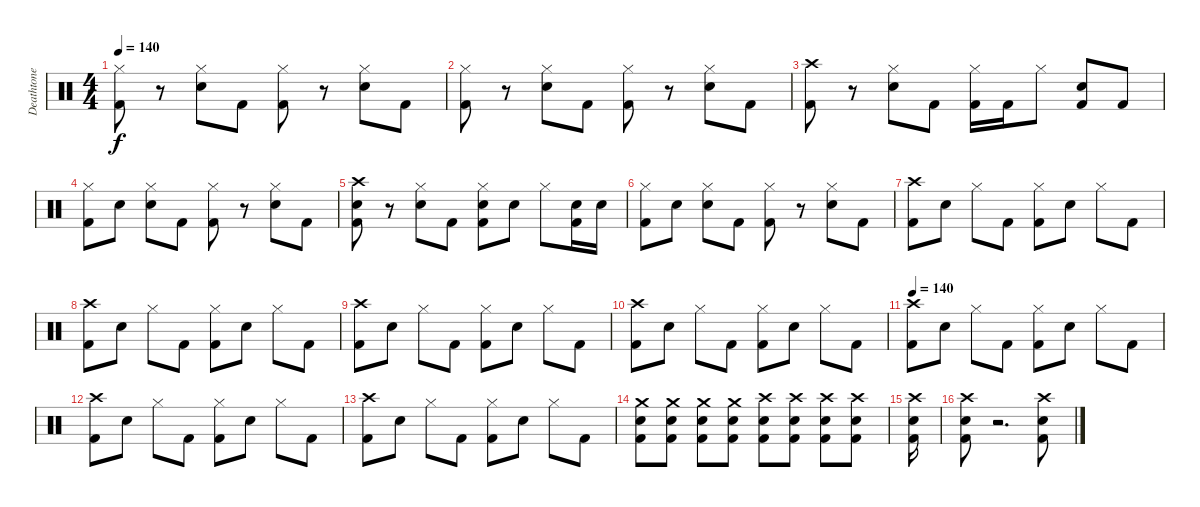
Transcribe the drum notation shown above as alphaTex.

\track ("Deathtone" "Deathtone") {instrument percussion}
\staff {score}
\articulation defaults
\ts (4 4)
\tempo 140
\clef neutral
\ks c
("Hi-Hat (closed)" "Kick (hit) 2").8{dy f} r.8 ("Hi-Hat (closed)" "Snare (hit) 2").8 "Kick (hit) 2".8 ("Hi-Hat (closed)" "Kick (hit) 2").8 r.8 ("Hi-Hat (closed)" "Snare (hit) 2").8 "Kick (hit) 2".8 |
("Hi-Hat (closed)" "Kick (hit) 2").8 r.8 ("Hi-Hat (closed)" "Snare (hit) 2").8 "Kick (hit) 2".8 ("Hi-Hat (closed)" "Kick (hit) 2").8 r.8 ("Hi-Hat (closed)" "Snare (hit) 2").8 "Kick (hit) 2".8 |
("Crash high (hit)" "Kick (hit) 2").8 r.8 ("Hi-Hat (closed)" "Snare (hit) 2").8 "Kick (hit) 2".8 ("Hi-Hat (closed)" "Kick (hit) 2").16 "Kick (hit) 2".16 "Hi-Hat (closed)".8 ("Snare (hit) 2" "Kick (hit) 2").8 "Kick (hit) 2".8 |
("Hi-Hat (closed)" "Kick (hit) 2").8 "Snare (hit) 2".8 ("Hi-Hat (closed)" "Snare (hit) 2").8 "Kick (hit) 2".8 ("Hi-Hat (closed)" "Kick (hit) 2").8 r.8 ("Hi-Hat (closed)" "Snare (hit) 2").8 "Kick (hit) 2".8 |
("Crash high (hit)" "Snare (hit) 2" "Kick (hit) 2").8 r.8 ("Hi-Hat (closed)" "Snare (hit) 2").8 "Kick (hit) 2".8 ("Hi-Hat (closed)" "Snare (hit) 2" "Kick (hit) 2").8 "Snare (hit) 2".8 "Hi-Hat (closed)".8 ("Snare (hit) 2" "Kick (hit) 2").16 "Snare (hit) 2".16 |
("Hi-Hat (closed)" "Kick (hit) 2").8 "Snare (hit) 2".8 ("Hi-Hat (closed)" "Snare (hit) 2").8 "Kick (hit) 2".8 ("Hi-Hat (closed)" "Kick (hit) 2").8 r.8 ("Hi-Hat (closed)" "Snare (hit) 2").8 "Kick (hit) 2".8 |
("Crash high (hit)" "Kick (hit) 2").8 "Snare (hit) 2".8 "Hi-Hat (closed)".8 "Kick (hit) 2".8 ("Hi-Hat (closed)" "Kick (hit) 2").8 "Snare (hit) 2".8 "Hi-Hat (closed)".8 "Kick (hit) 2".8 |
("Crash high (hit)" "Kick (hit) 2").8 "Snare (hit) 2".8 "Hi-Hat (closed)".8 "Kick (hit) 2".8 ("Hi-Hat (closed)" "Kick (hit) 2").8 "Snare (hit) 2".8 "Hi-Hat (closed)".8 "Kick (hit) 2".8 |
("Crash high (hit)" "Kick (hit) 2").8 "Snare (hit) 2".8 "Hi-Hat (closed)".8 "Kick (hit) 2".8 ("Hi-Hat (closed)" "Kick (hit) 2").8 "Snare (hit) 2".8 "Hi-Hat (closed)".8 "Kick (hit) 2".8 |
("Crash high (hit)" "Kick (hit) 2").8 "Snare (hit) 2".8 "Hi-Hat (closed)".8 "Kick (hit) 2".8 ("Hi-Hat (closed)" "Kick (hit) 2").8 "Snare (hit) 2".8 "Hi-Hat (closed)".8 "Kick (hit) 2".8 |
\tempo 140
("Crash high (hit)" "Kick (hit) 2").8 "Snare (hit) 2".8 "Hi-Hat (closed)".8 "Kick (hit) 2".8 ("Hi-Hat (closed)" "Kick (hit) 2").8 "Snare (hit) 2".8 "Hi-Hat (closed)".8 "Kick (hit) 2".8 |
("Crash high (hit)" "Kick (hit) 2").8 "Snare (hit) 2".8 "Hi-Hat (closed)".8 "Kick (hit) 2".8 ("Hi-Hat (closed)" "Kick (hit) 2").8 "Snare (hit) 2".8 "Hi-Hat (closed)".8 "Kick (hit) 2".8 |
("Crash high (hit)" "Kick (hit) 2").8 "Snare (hit) 2".8 "Hi-Hat (closed)".8 "Kick (hit) 2".8 ("Hi-Hat (closed)" "Kick (hit) 2").8 "Snare (hit) 2".8 "Hi-Hat (closed)".8 "Kick (hit) 2".8 |
("Crash medium (hit)" "Snare (hit) 2" "Kick (hit) 2").8 ("Crash medium (hit)" "Snare (hit) 2" "Kick (hit) 2").8 ("Crash medium (hit)" "Snare (hit) 2" "Kick (hit) 2").8 ("Crash medium (hit)" "Snare (hit) 2" "Kick (hit) 2").8 ("Crash high (hit)" "Snare (hit) 2" "Kick (hit) 2").8 ("Crash high (hit)" "Snare (hit) 2" "Kick (hit) 2").8 ("Crash high (hit)" "Snare (hit) 2" "Kick (hit) 2").8 ("Crash high (hit)" "Snare (hit) 2" "Kick (hit) 2").8 |
("Crash high (hit)" "Snare (hit) 2" "Kick (hit) 2").16 |
("Crash high (hit)" "Snare (hit) 2" "Kick (hit) 2").8 r.2{d} ("Crash high (hit)" "Snare (hit) 2" "Kick (hit) 2").8
